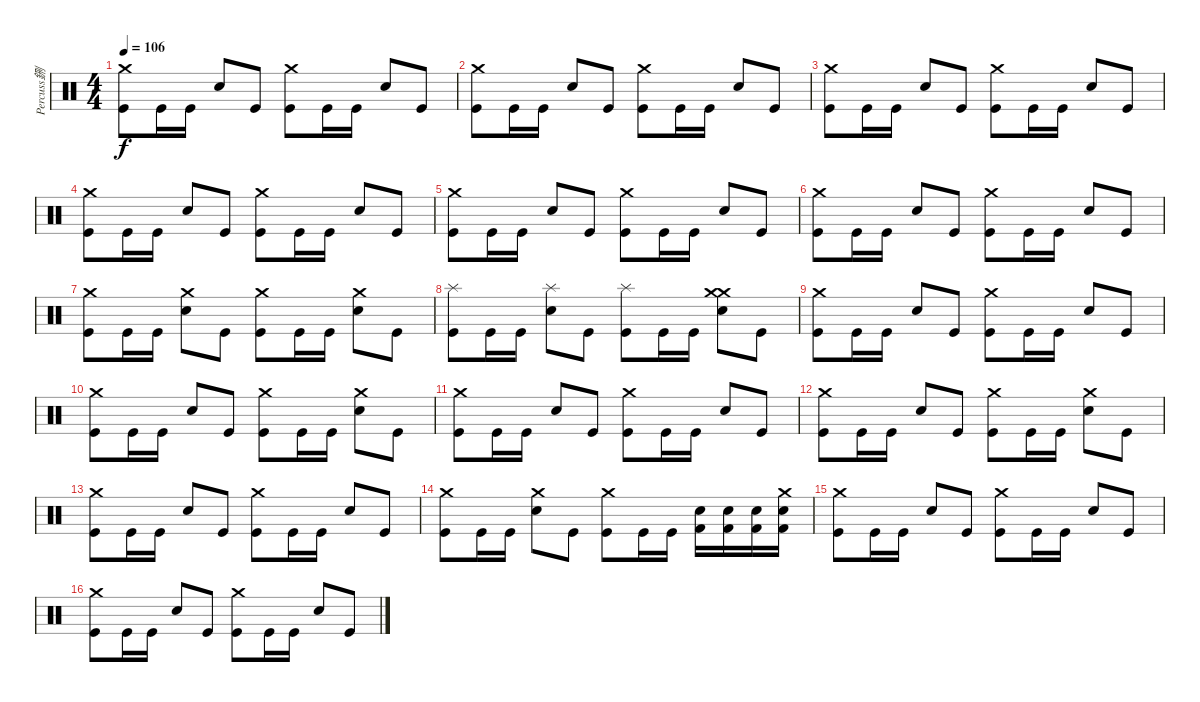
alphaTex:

\track ("Percuss鉶" "Percuss鉶") {instrument percussion}
\staff {score}
\articulation defaults
\ts (4 4)
\tempo 106
\clef neutral
\ks c
("Crash medium (hit)" "Kick (hit)").8{dy f} "Kick (hit)".16 "Kick (hit)".16 "Snare (hit) 2".8 "Kick (hit)".8 ("Crash medium (hit)" "Kick (hit)").8 "Kick (hit)".16 "Kick (hit)".16 "Snare (hit) 2".8 "Kick (hit)".8 |
("Crash medium (hit)" "Kick (hit)").8 "Kick (hit)".16 "Kick (hit)".16 "Snare (hit) 2".8 "Kick (hit)".8 ("Crash medium (hit)" "Kick (hit)").8 "Kick (hit)".16 "Kick (hit)".16 "Snare (hit) 2".8 "Kick (hit)".8 |
("Crash medium (hit)" "Kick (hit)").8 "Kick (hit)".16 "Kick (hit)".16 "Snare (hit) 2".8 "Kick (hit)".8 ("Crash medium (hit)" "Kick (hit)").8 "Kick (hit)".16 "Kick (hit)".16 "Snare (hit) 2".8 "Kick (hit)".8 |
("Crash medium (hit)" "Kick (hit)").8 "Kick (hit)".16 "Kick (hit)".16 "Snare (hit) 2".8 "Kick (hit)".8 ("Crash medium (hit)" "Kick (hit)").8 "Kick (hit)".16 "Kick (hit)".16 "Snare (hit) 2".8 "Kick (hit)".8 |
("Crash medium (hit)" "Kick (hit)").8 "Kick (hit)".16 "Kick (hit)".16 "Snare (hit) 2".8 "Kick (hit)".8 ("Crash medium (hit)" "Kick (hit)").8 "Kick (hit)".16 "Kick (hit)".16 "Snare (hit) 2".8 "Kick (hit)".8 |
("Crash medium (hit)" "Kick (hit)").8 "Kick (hit)".16 "Kick (hit)".16 "Snare (hit) 2".8 "Kick (hit)".8 ("Crash medium (hit)" "Kick (hit)").8 "Kick (hit)".16 "Kick (hit)".16 "Snare (hit) 2".8 "Kick (hit)".8 |
("Crash medium (hit)" "Kick (hit)").8 "Kick (hit)".16 "Kick (hit)".16 ("Crash medium (hit)" "Snare (hit) 2").8 "Kick (hit)".8 ("Crash medium (hit)" "Kick (hit)").8 "Kick (hit)".16 "Kick (hit)".16 ("Crash medium (hit)" "Snare (hit) 2").8 "Kick (hit)".8 |
("Splash (hit)" "Kick (hit)").8 "Kick (hit)".16 "Kick (hit)".16 ("Splash (hit)" "Snare (hit) 2").8 "Kick (hit)".8 ("Splash (hit)" "Kick (hit)").8 "Kick (hit)".16 "Kick (hit)".16 ("Crash medium (hit)" "Crash medium (hit)" "Snare (hit) 2").8 "Kick (hit)".8 |
("Crash medium (hit)" "Kick (hit)").8 "Kick (hit)".16 "Kick (hit)".16 "Snare (hit) 2".8 "Kick (hit)".8 ("Crash medium (hit)" "Kick (hit)").8 "Kick (hit)".16 "Kick (hit)".16 "Snare (hit) 2".8 "Kick (hit)".8 |
("Crash medium (hit)" "Kick (hit)").8 "Kick (hit)".16 "Kick (hit)".16 "Snare (hit) 2".8 "Kick (hit)".8 ("Crash medium (hit)" "Kick (hit)").8 "Kick (hit)".16 "Kick (hit)".16 ("Crash medium (hit)" "Snare (hit) 2").8 "Kick (hit)".8 |
("Crash medium (hit)" "Kick (hit)").8 "Kick (hit)".16 "Kick (hit)".16 "Snare (hit) 2".8 "Kick (hit)".8 ("Crash medium (hit)" "Kick (hit)").8 "Kick (hit)".16 "Kick (hit)".16 "Snare (hit) 2".8 "Kick (hit)".8 |
("Crash medium (hit)" "Kick (hit)").8 "Kick (hit)".16 "Kick (hit)".16 "Snare (hit) 2".8 "Kick (hit)".8 ("Crash medium (hit)" "Kick (hit)").8 "Kick (hit)".16 "Kick (hit)".16 ("Crash medium (hit)" "Snare (hit) 2").8 "Kick (hit)".8 |
("Crash medium (hit)" "Kick (hit)").8 "Kick (hit)".16 "Kick (hit)".16 "Snare (hit) 2".8 "Kick (hit)".8 ("Crash medium (hit)" "Kick (hit)").8 "Kick (hit)".16 "Kick (hit)".16 "Snare (hit) 2".8 "Kick (hit)".8 |
("Crash medium (hit)" "Kick (hit)").8 "Kick (hit)".16 "Kick (hit)".16 ("Crash medium (hit)" "Snare (hit) 2").8 "Kick (hit)".8 ("Crash medium (hit)" "Kick (hit)").8 "Kick (hit)".16 "Kick (hit)".16 ("Snare (hit) 2" "Kick (hit) 2").16 ("Snare (hit) 2" "Kick (hit) 2").16 ("Snare (hit) 2" "Kick (hit) 2").16 ("Crash medium (hit)" "Snare (hit) 2" "Kick (hit) 2").16 |
("Crash medium (hit)" "Kick (hit)").8 "Kick (hit)".16 "Kick (hit)".16 "Snare (hit) 2".8 "Kick (hit)".8 ("Crash medium (hit)" "Kick (hit)").8 "Kick (hit)".16 "Kick (hit)".16 "Snare (hit) 2".8 "Kick (hit)".8 |
("Crash medium (hit)" "Kick (hit)").8 "Kick (hit)".16 "Kick (hit)".16 "Snare (hit) 2".8 "Kick (hit)".8 ("Crash medium (hit)" "Kick (hit)").8 "Kick (hit)".16 "Kick (hit)".16 "Snare (hit) 2".8 "Kick (hit)".8
